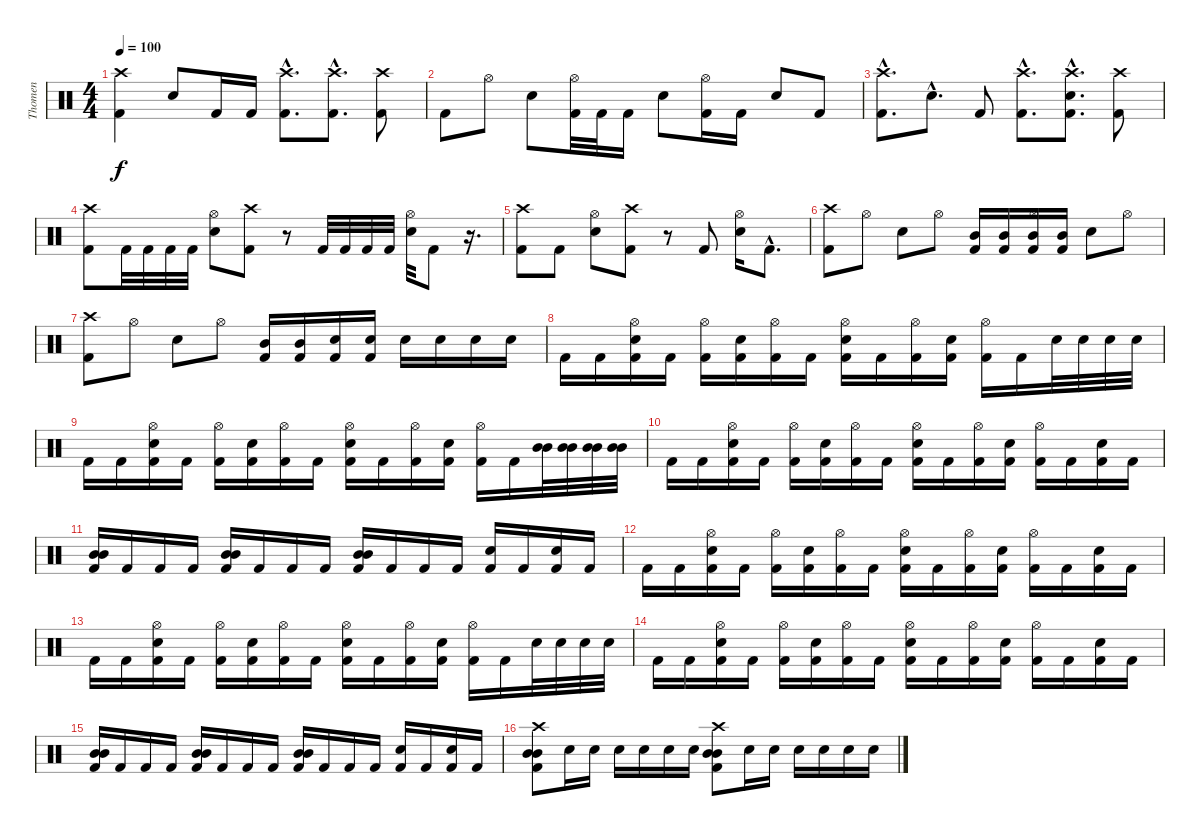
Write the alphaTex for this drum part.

\track ("Thomen" "Thomen") {instrument percussion}
\staff {score}
\articulation defaults
\ts (4 4)
\tempo 100
\clef neutral
\ks c
("Crash high (hit)" "Kick (hit) 2").4{dy f} "Snare (hit) 2".8 "Kick (hit) 2".16 "Kick (hit) 2".16 ("Crash high (hit)"{hac} "Kick (hit) 2"{hac}).8{d} ("Crash high (hit)"{hac} "Kick (hit) 2"{hac}).8{d} ("Crash high (hit)" "Kick (hit) 2").8 |
"Kick (hit) 2".8 "Hi-Hat (open)".8 "Snare (hit) 2".8 ("Hi-Hat (open)" "Kick (hit) 2").32 "Kick (hit) 2".32 "Kick (hit) 2".16 "Snare (hit) 2".8 ("Hi-Hat (open)" "Kick (hit) 2").16 "Kick (hit) 2".16 "Snare (hit) 2".8 "Kick (hit) 2".8 |
("Crash high (hit)"{hac} "Kick (hit) 2"{hac}).8{d} "Snare (hit) 2"{hac}.8{d} "Kick (hit) 2".8 ("Crash high (hit)"{hac} "Kick (hit) 2"{hac}).8{d} ("Crash high (hit)"{hac} "Snare (hit) 2"{hac} "Kick (hit) 2"{hac}).8{d} ("Crash high (hit)" "Kick (hit) 2").8 |
("Crash high (hit)" "Kick (hit) 2").8 "Kick (hit) 2".32 "Kick (hit) 2".32 "Kick (hit) 2".32 "Kick (hit) 2".32 ("Hi-Hat (open)" "Snare (hit) 2").8 ("Crash high (hit)" "Kick (hit) 2").8 r.8 "Kick (hit) 2".32 "Kick (hit) 2".32 "Kick (hit) 2".32 "Kick (hit) 2".32 ("Hi-Hat (open)" "Snare (hit) 2").32 "Kick (hit) 2".8 r.16{d} |
("Crash high (hit)" "Kick (hit) 2").8 "Kick (hit) 2".8 ("Hi-Hat (open)" "Snare (hit) 2").8 ("Crash high (hit)" "Kick (hit) 2").8 r.8 "Kick (hit) 2".8 ("Hi-Hat (open)" "Snare (hit) 2").16 "Kick (hit) 2"{hac}.8{d} |
("Crash high (hit)" "Kick (hit) 2").8 "Hi-Hat (open)".8 "Snare (hit) 2".8 "Hi-Hat (open)".8 ("Mid Tom (hit)" "Kick (hit) 2").16 ("Mid Tom (hit)" "Kick (hit) 2").16 ("Hi-Hat (open)" "Mid Tom (hit)" "Kick (hit) 2").16 ("Mid Tom (hit)" "Kick (hit) 2").16 "Snare (hit) 2".8 "Hi-Hat (open)".8 |
("Crash high (hit)" "Kick (hit) 2").8 "Hi-Hat (open)".8 "Snare (hit) 2".8 "Hi-Hat (open)".8 ("Mid Tom (hit)" "Kick (hit) 2").16 ("Mid Tom (hit)" "Kick (hit) 2").16 ("Snare (hit) 2" "Kick (hit) 2").16 ("Snare (hit) 2" "Kick (hit) 2").16 "Snare (hit) 2".16 "Snare (hit) 2".16 "Snare (hit) 2".16 "Snare (hit) 2".16 |
"Kick (hit) 2".16 "Kick (hit) 2".16 ("Hi-Hat (open)" "Snare (hit) 2" "Kick (hit) 2").16 "Kick (hit) 2".16 ("Hi-Hat (open)" "Kick (hit) 2").16 ("Snare (hit) 2" "Kick (hit) 2").16 ("Hi-Hat (open)" "Kick (hit) 2").16 "Kick (hit) 2".16 ("Hi-Hat (open)" "Snare (hit) 2" "Kick (hit) 2").16 "Kick (hit) 2".16 ("Hi-Hat (open)" "Kick (hit) 2").16 ("Snare (hit) 2" "Kick (hit) 2").16 ("Hi-Hat (open)" "Kick (hit) 2").16 "Kick (hit) 2".16 "Snare (hit) 2".32 "Snare (hit) 2".32 "Snare (hit) 2".32 "Snare (hit) 2".32 |
"Kick (hit) 2".16 "Kick (hit) 2".16 ("Hi-Hat (open)" "Snare (hit) 2" "Kick (hit) 2").16 "Kick (hit) 2".16 ("Hi-Hat (open)" "Kick (hit) 2").16 ("Snare (hit) 2" "Kick (hit) 2").16 ("Hi-Hat (open)" "Kick (hit) 2").16 "Kick (hit) 2".16 ("Hi-Hat (open)" "Snare (hit) 2" "Kick (hit) 2").16 "Kick (hit) 2".16 ("Hi-Hat (open)" "Kick (hit) 2").16 ("Snare (hit) 2" "Kick (hit) 2").16 ("Hi-Hat (open)" "Kick (hit) 2").16 "Kick (hit) 2".16 ("Mid Tom (hit)" "Mid Tom (hit)").32 ("Mid Tom (hit)" "Mid Tom (hit)").32 ("Mid Tom (hit)" "Mid Tom (hit)").32 ("Mid Tom (hit)" "Mid Tom (hit)").32 |
"Kick (hit) 2".16 "Kick (hit) 2".16 ("Hi-Hat (open)" "Snare (hit) 2" "Kick (hit) 2").16 "Kick (hit) 2".16 ("Hi-Hat (open)" "Kick (hit) 2").16 ("Snare (hit) 2" "Kick (hit) 2").16 ("Hi-Hat (open)" "Kick (hit) 2").16 "Kick (hit) 2".16 ("Hi-Hat (open)" "Snare (hit) 2" "Kick (hit) 2").16 "Kick (hit) 2".16 ("Hi-Hat (open)" "Kick (hit) 2").16 ("Snare (hit) 2" "Kick (hit) 2").16 ("Hi-Hat (open)" "Kick (hit) 2").16 "Kick (hit) 2".16 ("Snare (hit) 2" "Kick (hit) 2").16 "Kick (hit) 2".16 |
("Mid Tom (hit)" "Mid Tom (hit)" "Kick (hit) 2").16 "Kick (hit) 2".16 "Kick (hit) 2".16 "Kick (hit) 2".16 ("Mid Tom (hit)" "Mid Tom (hit)" "Kick (hit) 2").16 "Kick (hit) 2".16 "Kick (hit) 2".16 "Kick (hit) 2".16 ("Mid Tom (hit)" "Mid Tom (hit)" "Kick (hit) 2").16 "Kick (hit) 2".16 "Kick (hit) 2".16 "Kick (hit) 2".16 ("Snare (hit) 2" "Kick (hit) 2").16 "Kick (hit) 2".16 ("Snare (hit) 2" "Kick (hit) 2").16 "Kick (hit) 2".16 |
"Kick (hit) 2".16 "Kick (hit) 2".16 ("Hi-Hat (open)" "Snare (hit) 2" "Kick (hit) 2").16 "Kick (hit) 2".16 ("Hi-Hat (open)" "Kick (hit) 2").16 ("Snare (hit) 2" "Kick (hit) 2").16 ("Hi-Hat (open)" "Kick (hit) 2").16 "Kick (hit) 2".16 ("Hi-Hat (open)" "Snare (hit) 2" "Kick (hit) 2").16 "Kick (hit) 2".16 ("Hi-Hat (open)" "Kick (hit) 2").16 ("Snare (hit) 2" "Kick (hit) 2").16 ("Hi-Hat (open)" "Kick (hit) 2").16 "Kick (hit) 2".16 ("Snare (hit) 2" "Kick (hit) 2").16 "Kick (hit) 2".16 |
"Kick (hit) 2".16 "Kick (hit) 2".16 ("Hi-Hat (open)" "Snare (hit) 2" "Kick (hit) 2").16 "Kick (hit) 2".16 ("Hi-Hat (open)" "Kick (hit) 2").16 ("Snare (hit) 2" "Kick (hit) 2").16 ("Hi-Hat (open)" "Kick (hit) 2").16 "Kick (hit) 2".16 ("Hi-Hat (open)" "Snare (hit) 2" "Kick (hit) 2").16 "Kick (hit) 2".16 ("Hi-Hat (open)" "Kick (hit) 2").16 ("Snare (hit) 2" "Kick (hit) 2").16 ("Hi-Hat (open)" "Kick (hit) 2").16 "Kick (hit) 2".16 "Snare (hit) 2".32 "Snare (hit) 2".32 "Snare (hit) 2".32 "Snare (hit) 2".32 |
"Kick (hit) 2".16 "Kick (hit) 2".16 ("Hi-Hat (open)" "Snare (hit) 2" "Kick (hit) 2").16 "Kick (hit) 2".16 ("Hi-Hat (open)" "Kick (hit) 2").16 ("Snare (hit) 2" "Kick (hit) 2").16 ("Hi-Hat (open)" "Kick (hit) 2").16 "Kick (hit) 2".16 ("Hi-Hat (open)" "Snare (hit) 2" "Kick (hit) 2").16 "Kick (hit) 2".16 ("Hi-Hat (open)" "Kick (hit) 2").16 ("Snare (hit) 2" "Kick (hit) 2").16 ("Hi-Hat (open)" "Kick (hit) 2").16 "Kick (hit) 2".16 ("Snare (hit) 2" "Kick (hit) 2").16 "Kick (hit) 2".16 |
("Mid Tom (hit)" "Mid Tom (hit)" "Kick (hit) 2").16 "Kick (hit) 2".16 "Kick (hit) 2".16 "Kick (hit) 2".16 ("Mid Tom (hit)" "Mid Tom (hit)" "Kick (hit) 2").16 "Kick (hit) 2".16 "Kick (hit) 2".16 "Kick (hit) 2".16 ("Mid Tom (hit)" "Mid Tom (hit)" "Kick (hit) 2").16 "Kick (hit) 2".16 "Kick (hit) 2".16 "Kick (hit) 2".16 ("Snare (hit) 2" "Kick (hit) 2").16 "Kick (hit) 2".16 ("Snare (hit) 2" "Kick (hit) 2").16 "Kick (hit) 2".16 |
("Crash high (hit)" "Mid Tom (hit)" "Kick (hit) 2" "Mid Tom (hit)").8 "Snare (hit) 2".16 "Snare (hit) 2".16 "Snare (hit) 2".16 "Snare (hit) 2".16 "Snare (hit) 2".16 "Snare (hit) 2".16 ("Crash high (hit)" "Mid Tom (hit)" "Kick (hit) 2" "Mid Tom (hit)").8 "Snare (hit) 2".16 "Snare (hit) 2".16 "Snare (hit) 2".16 "Snare (hit) 2".16 "Snare (hit) 2".16 "Snare (hit) 2".16
